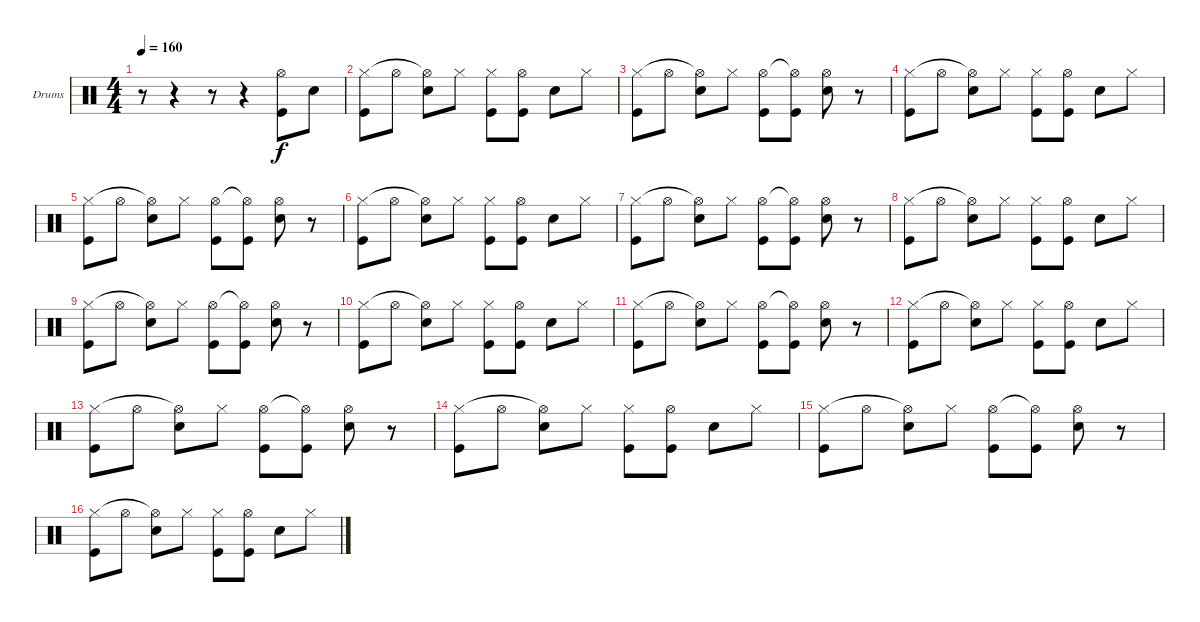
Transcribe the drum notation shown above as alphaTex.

\bracketExtendMode groupsimilarinstruments
\firstSystemTrackNameOrientation horizontal
\otherSystemsTrackNameOrientation horizontal
\track ("Drumkit" "Drums") {instrument percussion}
\staff {score}
\articulation defaults
\ts (4 4)
\tempo 160
\clef neutral
\ks c
r.8{dy f} r.4 r.8 r.4 ("Kick (hit)" "Hi-Hat (open)").8 "Snare (hit) 2".8 |
("Kick (hit)" "Hi-Hat (closed)").8 "Hi-Hat (open)".8 ("Snare (hit) 2" "Hi-Hat (open)"{t}).8 "Hi-Hat (closed)".8 ("Kick (hit)" "Hi-Hat (closed)").8 ("Kick (hit)" "Hi-Hat (open)").8 "Snare (hit) 2".8 "Hi-Hat (closed)".8 |
("Kick (hit)" "Hi-Hat (closed)").8 "Hi-Hat (open)".8 ("Snare (hit) 2" "Hi-Hat (open)"{t}).8 "Hi-Hat (closed)".8 ("Kick (hit)" "Hi-Hat (open)").8 ("Kick (hit)" "Hi-Hat (open)"{t}).8 ("Snare (hit) 2" "Hi-Hat (open)").8 r.8 |
("Kick (hit)" "Hi-Hat (closed)").8 "Hi-Hat (open)".8 ("Snare (hit) 2" "Hi-Hat (open)"{t}).8 "Hi-Hat (closed)".8 ("Kick (hit)" "Hi-Hat (closed)").8 ("Kick (hit)" "Hi-Hat (open)").8 "Snare (hit) 2".8 "Hi-Hat (closed)".8 |
("Kick (hit)" "Hi-Hat (closed)").8 "Hi-Hat (open)".8 ("Snare (hit) 2" "Hi-Hat (open)"{t}).8 "Hi-Hat (closed)".8 ("Kick (hit)" "Hi-Hat (open)").8 ("Kick (hit)" "Hi-Hat (open)"{t}).8 ("Snare (hit) 2" "Hi-Hat (open)").8 r.8 |
("Kick (hit)" "Hi-Hat (closed)").8 "Hi-Hat (open)".8 ("Snare (hit) 2" "Hi-Hat (open)"{t}).8 "Hi-Hat (closed)".8 ("Kick (hit)" "Hi-Hat (closed)").8 ("Kick (hit)" "Hi-Hat (open)").8 "Snare (hit) 2".8 "Hi-Hat (closed)".8 |
("Kick (hit)" "Hi-Hat (closed)").8 "Hi-Hat (open)".8 ("Snare (hit) 2" "Hi-Hat (open)"{t}).8 "Hi-Hat (closed)".8 ("Kick (hit)" "Hi-Hat (open)").8 ("Kick (hit)" "Hi-Hat (open)"{t}).8 ("Snare (hit) 2" "Hi-Hat (open)").8 r.8 |
("Kick (hit)" "Hi-Hat (closed)").8 "Hi-Hat (open)".8 ("Snare (hit) 2" "Hi-Hat (open)"{t}).8 "Hi-Hat (closed)".8 ("Kick (hit)" "Hi-Hat (closed)").8 ("Kick (hit)" "Hi-Hat (open)").8 "Snare (hit) 2".8 "Hi-Hat (closed)".8 |
("Kick (hit)" "Hi-Hat (closed)").8 "Hi-Hat (open)".8 ("Snare (hit) 2" "Hi-Hat (open)"{t}).8 "Hi-Hat (closed)".8 ("Kick (hit)" "Hi-Hat (open)").8 ("Kick (hit)" "Hi-Hat (open)"{t}).8 ("Snare (hit) 2" "Hi-Hat (open)").8 r.8 |
("Kick (hit)" "Hi-Hat (closed)").8 "Hi-Hat (open)".8 ("Snare (hit) 2" "Hi-Hat (open)"{t}).8 "Hi-Hat (closed)".8 ("Kick (hit)" "Hi-Hat (closed)").8 ("Kick (hit)" "Hi-Hat (open)").8 "Snare (hit) 2".8 "Hi-Hat (closed)".8 |
("Kick (hit)" "Hi-Hat (closed)").8 "Hi-Hat (open)".8 ("Snare (hit) 2" "Hi-Hat (open)"{t}).8 "Hi-Hat (closed)".8 ("Kick (hit)" "Hi-Hat (open)").8 ("Kick (hit)" "Hi-Hat (open)"{t}).8 ("Snare (hit) 2" "Hi-Hat (open)").8 r.8 |
("Kick (hit)" "Hi-Hat (closed)").8 "Hi-Hat (open)".8 ("Snare (hit) 2" "Hi-Hat (open)"{t}).8 "Hi-Hat (closed)".8 ("Kick (hit)" "Hi-Hat (closed)").8 ("Kick (hit)" "Hi-Hat (open)").8 "Snare (hit) 2".8 "Hi-Hat (closed)".8 |
("Kick (hit)" "Hi-Hat (closed)").8 "Hi-Hat (open)".8 ("Snare (hit) 2" "Hi-Hat (open)"{t}).8 "Hi-Hat (closed)".8 ("Kick (hit)" "Hi-Hat (open)").8 ("Kick (hit)" "Hi-Hat (open)"{t}).8 ("Snare (hit) 2" "Hi-Hat (open)").8 r.8 |
("Kick (hit)" "Hi-Hat (closed)").8 "Hi-Hat (open)".8 ("Snare (hit) 2" "Hi-Hat (open)"{t}).8 "Hi-Hat (closed)".8 ("Kick (hit)" "Hi-Hat (closed)").8 ("Kick (hit)" "Hi-Hat (open)").8 "Snare (hit) 2".8 "Hi-Hat (closed)".8 |
("Kick (hit)" "Hi-Hat (closed)").8 "Hi-Hat (open)".8 ("Snare (hit) 2" "Hi-Hat (open)"{t}).8 "Hi-Hat (closed)".8 ("Kick (hit)" "Hi-Hat (open)").8 ("Kick (hit)" "Hi-Hat (open)"{t}).8 ("Snare (hit) 2" "Hi-Hat (open)").8 r.8 |
("Kick (hit)" "Hi-Hat (closed)").8 "Hi-Hat (open)".8 ("Snare (hit) 2" "Hi-Hat (open)"{t}).8 "Hi-Hat (closed)".8 ("Kick (hit)" "Hi-Hat (closed)").8 ("Kick (hit)" "Hi-Hat (open)").8 "Snare (hit) 2".8 "Hi-Hat (closed)".8
